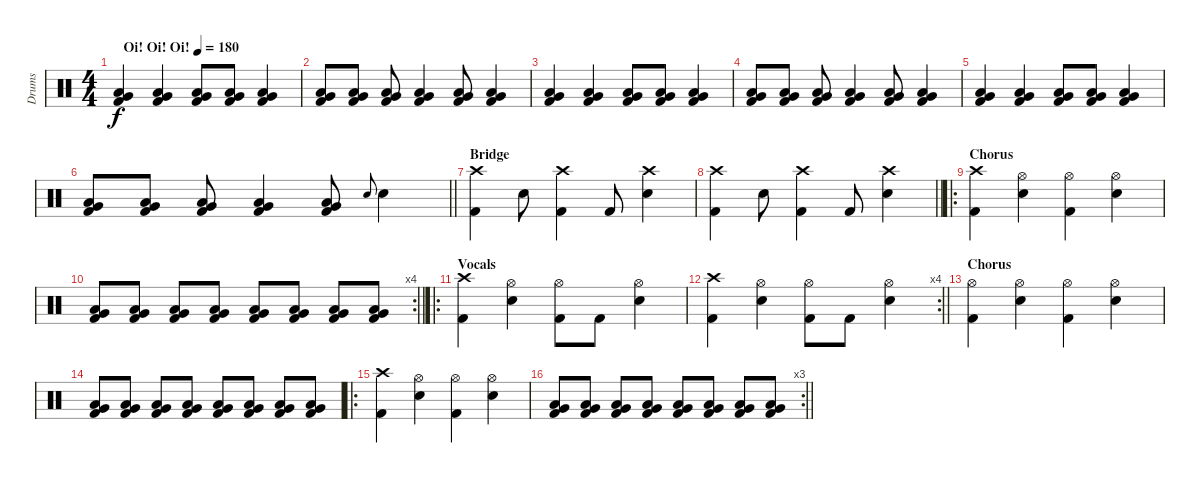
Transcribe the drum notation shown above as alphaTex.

\track ("Drums" "Drums") {instrument percussion}
\staff {score}
\articulation defaults
\ts (4 4)
\tempo (180 "Oi! Oi! Oi!")
\clef neutral
\ks c
("Very Low Tom (hit)" "Low Floor Tom (hit)" "Kick (hit) 2").4{dy f} ("Very Low Tom (hit)" "Low Floor Tom (hit)" "Kick (hit) 2").4 ("Very Low Tom (hit)" "Low Floor Tom (hit)" "Kick (hit) 2").8 ("Very Low Tom (hit)" "Low Floor Tom (hit)" "Kick (hit) 2").8 ("Very Low Tom (hit)" "Low Floor Tom (hit)" "Kick (hit) 2").4 |
("Very Low Tom (hit)" "Low Floor Tom (hit)" "Kick (hit) 2").8 ("Very Low Tom (hit)" "Low Floor Tom (hit)" "Kick (hit) 2").8 ("Very Low Tom (hit)" "Low Floor Tom (hit)" "Kick (hit) 2").8 ("Very Low Tom (hit)" "Low Floor Tom (hit)" "Kick (hit) 2").4 ("Very Low Tom (hit)" "Low Floor Tom (hit)" "Kick (hit) 2").8 ("Very Low Tom (hit)" "Low Floor Tom (hit)" "Kick (hit) 2").4 |
("Very Low Tom (hit)" "Low Floor Tom (hit)" "Kick (hit) 2").4 ("Very Low Tom (hit)" "Low Floor Tom (hit)" "Kick (hit) 2").4 ("Very Low Tom (hit)" "Low Floor Tom (hit)" "Kick (hit) 2").8 ("Very Low Tom (hit)" "Low Floor Tom (hit)" "Kick (hit) 2").8 ("Very Low Tom (hit)" "Low Floor Tom (hit)" "Kick (hit) 2").4 |
("Very Low Tom (hit)" "Low Floor Tom (hit)" "Kick (hit) 2").8 ("Very Low Tom (hit)" "Low Floor Tom (hit)" "Kick (hit) 2").8 ("Very Low Tom (hit)" "Low Floor Tom (hit)" "Kick (hit) 2").8 ("Very Low Tom (hit)" "Low Floor Tom (hit)" "Kick (hit) 2").4 ("Very Low Tom (hit)" "Low Floor Tom (hit)" "Kick (hit) 2").8 ("Very Low Tom (hit)" "Low Floor Tom (hit)" "Kick (hit) 2").4 |
("Very Low Tom (hit)" "Low Floor Tom (hit)" "Kick (hit) 2").4 ("Very Low Tom (hit)" "Low Floor Tom (hit)" "Kick (hit) 2").4 ("Very Low Tom (hit)" "Low Floor Tom (hit)" "Kick (hit) 2").8 ("Very Low Tom (hit)" "Low Floor Tom (hit)" "Kick (hit) 2").8 ("Very Low Tom (hit)" "Low Floor Tom (hit)" "Kick (hit) 2").4 |
\barLineRight lightlight
("Very Low Tom (hit)" "Low Floor Tom (hit)" "Kick (hit) 2").8 ("Very Low Tom (hit)" "Low Floor Tom (hit)" "Kick (hit) 2").8 ("Very Low Tom (hit)" "Low Floor Tom (hit)" "Kick (hit) 2").8 ("Very Low Tom (hit)" "Low Floor Tom (hit)" "Kick (hit) 2").4 ("Very Low Tom (hit)" "Low Floor Tom (hit)" "Kick (hit) 2").8 "Snare (hit) 2".8{gr onbeat} "Snare (hit) 2".4 |
\section ("" "Bridge")
("Crash high (hit)" "Kick (hit) 2").4 "Snare (hit) 2".8 ("Crash high (hit)" "Kick (hit) 2").4 "Kick (hit) 2".8 ("Crash high (hit)" "Snare (hit) 2").4 |
\barLineRight lightlight
("Crash high (hit)" "Kick (hit) 2").4 "Snare (hit) 2".8 ("Crash high (hit)" "Kick (hit) 2").4 "Kick (hit) 2".8 ("Crash high (hit)" "Snare (hit) 2").4 |
\ro
\section ("" "Chorus")
("Crash high (hit)" "Kick (hit) 2").4 ("Hi-Hat (open)" "Snare (hit) 2").4 ("Hi-Hat (open)" "Kick (hit) 2").4 ("Hi-Hat (open)" "Snare (hit) 2").4 |
\rc 4
\barLineRight lightlight
("Very Low Tom (hit)" "Low Floor Tom (hit)" "Kick (hit) 2").8 ("Very Low Tom (hit)" "Low Floor Tom (hit)" "Kick (hit) 2").8 ("Very Low Tom (hit)" "Low Floor Tom (hit)" "Kick (hit) 2").8 ("Very Low Tom (hit)" "Low Floor Tom (hit)" "Kick (hit) 2").8 ("Very Low Tom (hit)" "Low Floor Tom (hit)" "Kick (hit) 2").8 ("Very Low Tom (hit)" "Low Floor Tom (hit)" "Kick (hit) 2").8 ("Very Low Tom (hit)" "Low Floor Tom (hit)" "Kick (hit) 2").8 ("Very Low Tom (hit)" "Low Floor Tom (hit)" "Kick (hit) 2").8 |
\ro
\section ("" "Vocals")
("Crash high (hit)" "Kick (hit) 2").4 ("Hi-Hat (open)" "Snare (hit) 2").4 ("Hi-Hat (open)" "Kick (hit) 2").8 "Kick (hit) 2".8 ("Hi-Hat (open)" "Snare (hit) 2").4 |
\rc 4
\barLineRight lightlight
("Crash high (hit)" "Kick (hit) 2").4 ("Hi-Hat (open)" "Snare (hit) 2").4 ("Hi-Hat (open)" "Kick (hit) 2").8 "Kick (hit) 2".8 ("Hi-Hat (open)" "Snare (hit) 2").4 |
\section ("" "Chorus")
("Hi-Hat (open)" "Kick (hit) 2").4 ("Hi-Hat (open)" "Snare (hit) 2").4 ("Hi-Hat (open)" "Kick (hit) 2").4 ("Hi-Hat (open)" "Snare (hit) 2").4 |
("Very Low Tom (hit)" "Low Floor Tom (hit)" "Kick (hit) 2").8 ("Very Low Tom (hit)" "Low Floor Tom (hit)" "Kick (hit) 2").8 ("Very Low Tom (hit)" "Low Floor Tom (hit)" "Kick (hit) 2").8 ("Very Low Tom (hit)" "Low Floor Tom (hit)" "Kick (hit) 2").8 ("Very Low Tom (hit)" "Low Floor Tom (hit)" "Kick (hit) 2").8 ("Very Low Tom (hit)" "Low Floor Tom (hit)" "Kick (hit) 2").8 ("Very Low Tom (hit)" "Low Floor Tom (hit)" "Kick (hit) 2").8 ("Very Low Tom (hit)" "Low Floor Tom (hit)" "Kick (hit) 2").8 |
\ro
("Crash high (hit)" "Kick (hit) 2").4 ("Hi-Hat (open)" "Snare (hit) 2").4 ("Hi-Hat (open)" "Kick (hit) 2").4 ("Hi-Hat (open)" "Snare (hit) 2").4 |
\rc 3
\barLineRight lightlight
("Very Low Tom (hit)" "Low Floor Tom (hit)" "Kick (hit) 2").8 ("Very Low Tom (hit)" "Low Floor Tom (hit)" "Kick (hit) 2").8 ("Very Low Tom (hit)" "Low Floor Tom (hit)" "Kick (hit) 2").8 ("Very Low Tom (hit)" "Low Floor Tom (hit)" "Kick (hit) 2").8 ("Very Low Tom (hit)" "Low Floor Tom (hit)" "Kick (hit) 2").8 ("Very Low Tom (hit)" "Low Floor Tom (hit)" "Kick (hit) 2").8 ("Very Low Tom (hit)" "Low Floor Tom (hit)" "Kick (hit) 2").8 ("Very Low Tom (hit)" "Low Floor Tom (hit)" "Kick (hit) 2").8
